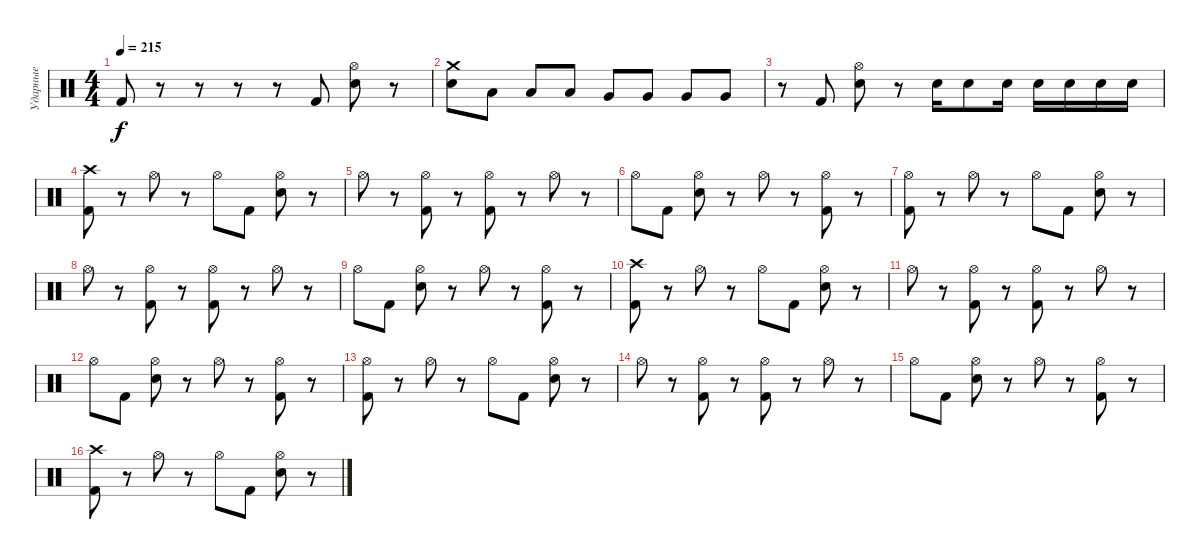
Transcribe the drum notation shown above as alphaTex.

\track ("Ударные" "Ударные") {instrument percussion}
\staff {score}
\articulation defaults
\ts (4 4)
\tempo 215
\clef neutral
\ks c "Kick (hit) 2".8{dy f}
r.8 r.8 r.8 r.8 "Kick (hit) 2".8 ("Hi-Hat (open)" "Snare (hit) 2").8 r.8 |
("Crash medium (hit)" "Snare (hit) 2").8 "Low Tom (hit)".8 "Low Tom (hit)".8 "Low Tom (hit)".8 "Very Low Tom (hit)".8 "Very Low Tom (hit)".8 "Very Low Tom (hit)".8 "Very Low Tom (hit)".8 |
r.8 "Kick (hit) 2".8 ("Hi-Hat (open)" "Snare (hit) 2").8 r.8 "Snare (hit) 2".16 "Snare (hit) 2".8 "Snare (hit) 2".16 "Snare (hit) 2".16 "Snare (hit) 2".16 "Snare (hit) 2".16 "Snare (hit) 2".16 |
("Crash high (hit)" "Kick (hit) 2").8 r.8 "Hi-Hat (open)".8 r.8 "Hi-Hat (open)".8 "Kick (hit) 2".8 ("Hi-Hat (open)" "Snare (hit) 2").8 r.8 |
"Hi-Hat (open)".8 r.8 ("Hi-Hat (open)" "Kick (hit) 2").8 r.8 ("Hi-Hat (open)" "Kick (hit) 2").8 r.8 "Hi-Hat (open)".8 r.8 |
"Hi-Hat (open)".8 "Kick (hit) 2".8 ("Hi-Hat (open)" "Snare (hit) 2").8 r.8 "Hi-Hat (open)".8 r.8 ("Hi-Hat (open)" "Kick (hit) 2").8 r.8 |
("Hi-Hat (open)" "Kick (hit) 2").8 r.8 "Hi-Hat (open)".8 r.8 "Hi-Hat (open)".8 "Kick (hit) 2".8 ("Hi-Hat (open)" "Snare (hit) 2").8 r.8 |
"Hi-Hat (open)".8 r.8 ("Hi-Hat (open)" "Kick (hit) 2").8 r.8 ("Hi-Hat (open)" "Kick (hit) 2").8 r.8 "Hi-Hat (open)".8 r.8 |
"Hi-Hat (open)".8 "Kick (hit) 2".8 ("Hi-Hat (open)" "Snare (hit) 2").8 r.8 "Hi-Hat (open)".8 r.8 ("Hi-Hat (open)" "Kick (hit) 2").8 r.8 |
("Crash high (hit)" "Kick (hit) 2").8 r.8 "Hi-Hat (open)".8 r.8 "Hi-Hat (open)".8 "Kick (hit) 2".8 ("Hi-Hat (open)" "Snare (hit) 2").8 r.8 |
"Hi-Hat (open)".8 r.8 ("Hi-Hat (open)" "Kick (hit) 2").8 r.8 ("Hi-Hat (open)" "Kick (hit) 2").8 r.8 "Hi-Hat (open)".8 r.8 |
"Hi-Hat (open)".8 "Kick (hit) 2".8 ("Hi-Hat (open)" "Snare (hit) 2").8 r.8 "Hi-Hat (open)".8 r.8 ("Hi-Hat (open)" "Kick (hit) 2").8 r.8 |
("Hi-Hat (open)" "Kick (hit) 2").8 r.8 "Hi-Hat (open)".8 r.8 "Hi-Hat (open)".8 "Kick (hit) 2".8 ("Hi-Hat (open)" "Snare (hit) 2").8 r.8 |
"Hi-Hat (open)".8 r.8 ("Hi-Hat (open)" "Kick (hit) 2").8 r.8 ("Hi-Hat (open)" "Kick (hit) 2").8 r.8 "Hi-Hat (open)".8 r.8 |
"Hi-Hat (open)".8 "Kick (hit) 2".8 ("Hi-Hat (open)" "Snare (hit) 2").8 r.8 "Hi-Hat (open)".8 r.8 ("Hi-Hat (open)" "Kick (hit) 2").8 r.8 |
("Crash high (hit)" "Kick (hit) 2").8 r.8 "Hi-Hat (open)".8 r.8 "Hi-Hat (open)".8 "Kick (hit) 2".8 ("Hi-Hat (open)" "Snare (hit) 2").8 r.8
